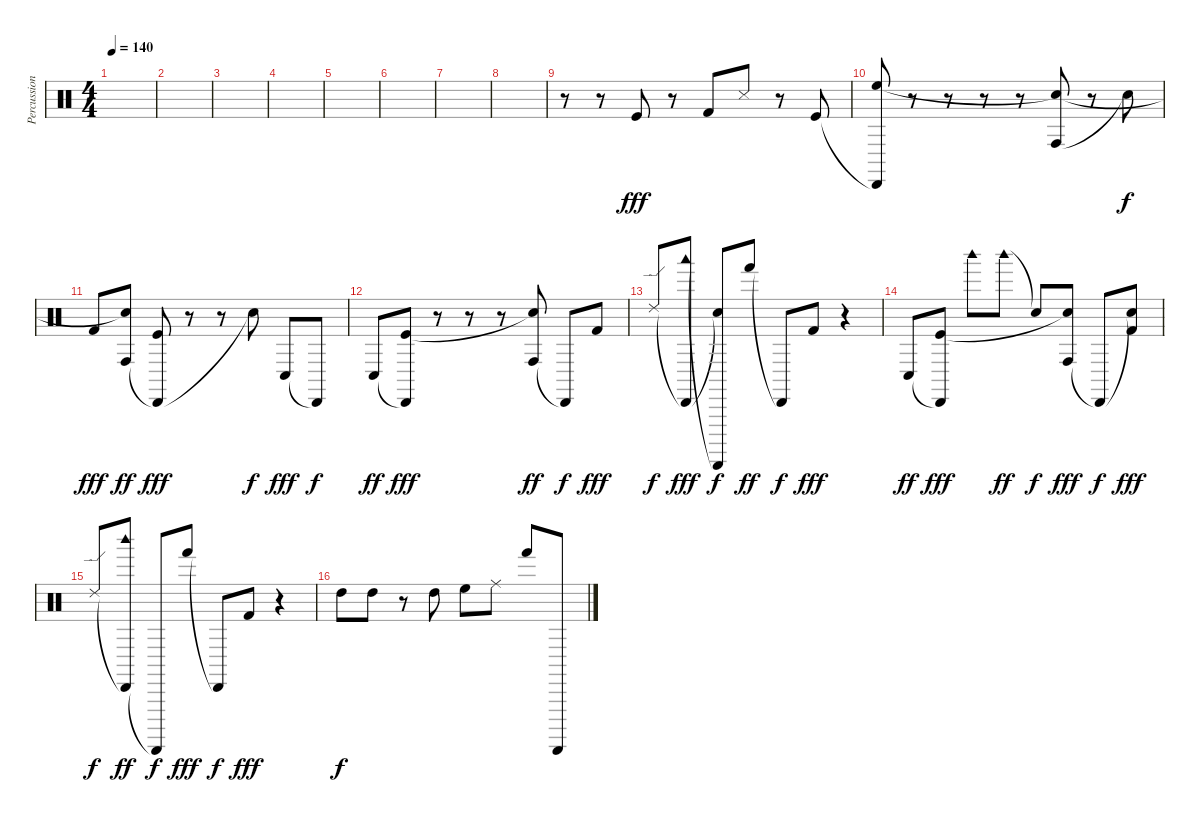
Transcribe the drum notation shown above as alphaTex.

\track ("Percussions" "Percussion") {instrument percussion}
\staff {score}
\articulation defaults
\ts (4 4)
\tempo 140
\clef neutral
\ks c
|
|
|
|
|
|
|
|
r.8 r.8 "Kick (hit)".8{dy fff balance 1} r.8 "Kick (hit) 2".8{balance 13} "Snare (side stick) 3".8{balance 6} r.8 "Kick (hit)".8{balance 1} |
("Cabasa (hit)"{t} "High Floor Tom (hit)").8{balance 0} r.8 r.8 r.8 r.8 ("Conga high (hit)" "Snare (hit)"{t}).8{balance 16} r.8 "Snare (hit)"{t}.8{dy f} |
"Kick (hit) 2".8{dy fff balance 12} ("Conga high (hit)" "Snare (hit)"{t}).8{dy ff balance 15} ("Cabasa (hit)"{t} "Kick (hit)").8{dy fff balance 1} r.8 r.8 "Snare (hit)"{t}.8{dy f} "Conga low (hit)".8{dy fff} "Cabasa (hit)"{t}.8{dy f} |
"Conga low (hit)".8{dy ff balance 0} ("Cabasa (hit)"{t} "Kick (hit)").8{dy fff balance 1} r.8 r.8 r.8 ("Conga high (hit)" "Snare (hit)"{t}).8{dy ff balance 1} "Cabasa (hit)"{t}.8{dy f} "Kick (hit) 2".8{dy fff balance 2} |
"Ride (edge) 2".8{dy f balance 0} ("Cabasa (hit)"{t} "Woodblock low (hit)").8{dy fff balance 16} ("Snare (hit)"{t} "Guiro (scrap-return)"{t}).8{dy f} "Hand (hit)".8{dy ff balance 0} "Cabasa (hit)"{t}.8{dy f} "Kick (hit) 2".8{dy fff balance 15} r.4 |
"Conga low (hit)".8{dy ff} ("Cabasa (hit)"{t} "Kick (hit)").8{dy fff balance 1} "Woodblock high (hit)".8{balance 0} "Woodblock high (hit)".8{dy ff balance 16} "Snare (hit)"{t}.8{dy f} ("Conga high (hit)" "Snare (hit)"{t}).8{dy fff balance 16} "Cabasa (hit)"{t}.8{dy f} ("Snare (hit)"{t} "Kick (hit) 2").8{dy fff} |
"Ride (edge) 2".8{dy f} ("Cabasa (hit)"{t} "Woodblock high (hit)").8{dy ff} "Guiro (scrap-return)"{t}.8{dy f} "Hand (hit)".8{dy fff balance 0} "Cabasa (hit)"{t}.8{dy f} "Kick (hit) 2".8{dy fff} r.4 |
"High Tom (hit)".8{dy f balance 9} "High Tom (hit)".8{balance 6} r.8 "High Tom (hit)".8{balance 2} "High Floor Tom (hit)".8{balance 4} "Ride (middle)".8{balance 6} "Hand (hit)".8{balance 11} "Guiro (scrap-return)".8{balance 15}
